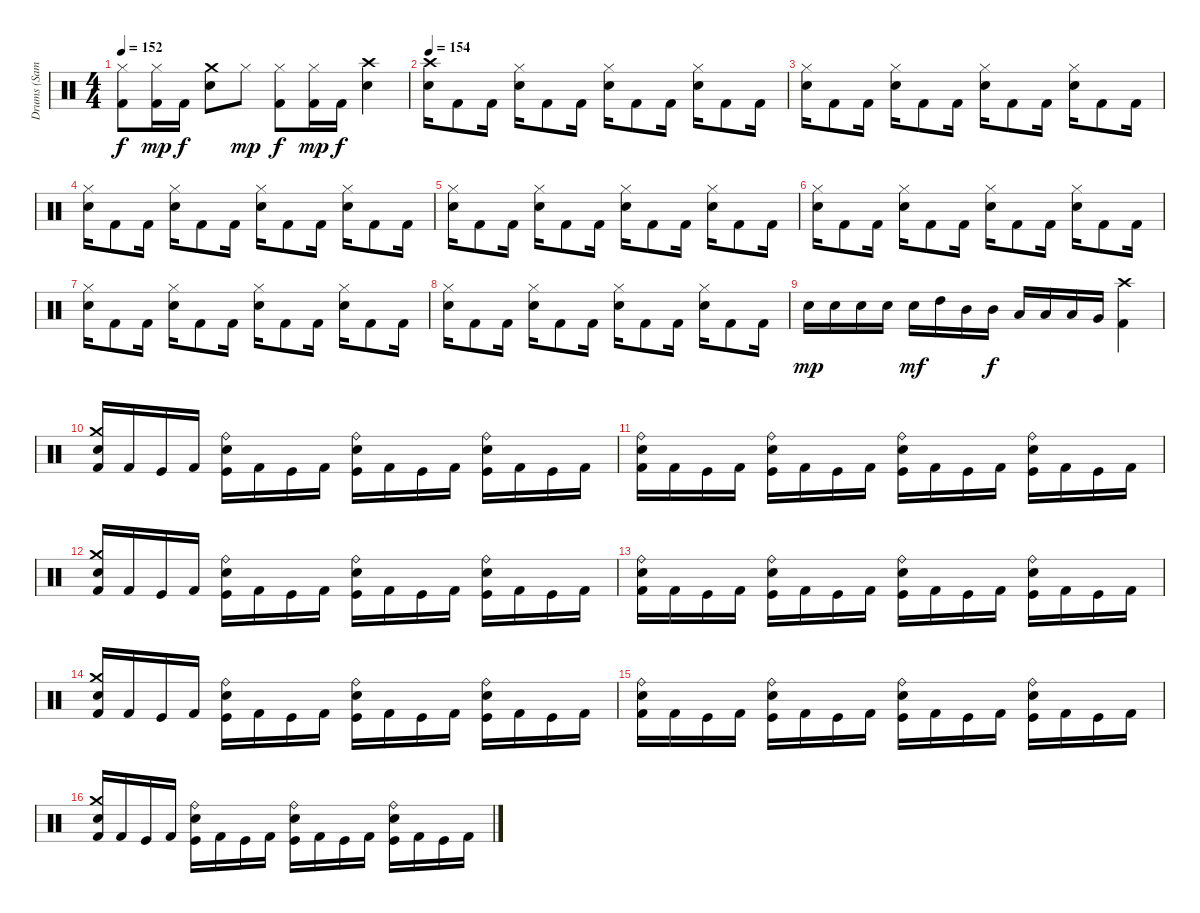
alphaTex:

\track ("Drums (Samuelson)" "Drums (Sam") {instrument percussion}
\staff
\articulation defaults
\ts (4 4)
\tempo 152
\clef neutral
\ks c
("Hi-Hat (closed)" "Kick (hit) 2").8{dy f} ("Hi-Hat (closed)" "Kick (hit) 2").16{dy mp} "Kick (hit) 2".16{dy f} ("Crash medium (hit)" "Electric Snare (hit)").8 "Hi-Hat (closed)".8{dy mp} ("Hi-Hat (closed)" "Kick (hit) 2").8{dy f} ("Hi-Hat (closed)" "Kick (hit) 2").16{dy mp} "Kick (hit) 2".16{dy f} ("Crash high (hit)" "Electric Snare (hit)").4 |
\tempo 152
\tempo 154
("Crash high (hit)" "Electric Snare (hit)").16 "Kick (hit) 2".8 "Kick (hit) 2".16 ("Hi-Hat (closed)" "Electric Snare (hit)").16 "Kick (hit) 2".8 "Kick (hit) 2".16 ("Hi-Hat (closed)" "Electric Snare (hit)").16 "Kick (hit) 2".8 "Kick (hit) 2".16 ("Hi-Hat (closed)" "Electric Snare (hit)").16 "Kick (hit) 2".8 "Kick (hit) 2".16 |
("Hi-Hat (closed)" "Electric Snare (hit)").16 "Kick (hit) 2".8 "Kick (hit) 2".16 ("Hi-Hat (closed)" "Electric Snare (hit)").16 "Kick (hit) 2".8 "Kick (hit) 2".16 ("Hi-Hat (closed)" "Electric Snare (hit)").16 "Kick (hit) 2".8 "Kick (hit) 2".16 ("Hi-Hat (closed)" "Electric Snare (hit)").16 "Kick (hit) 2".8 "Kick (hit) 2".16 |
("Hi-Hat (closed)" "Electric Snare (hit)").16 "Kick (hit) 2".8 "Kick (hit) 2".16 ("Hi-Hat (closed)" "Electric Snare (hit)").16 "Kick (hit) 2".8 "Kick (hit) 2".16 ("Hi-Hat (closed)" "Electric Snare (hit)").16 "Kick (hit) 2".8 "Kick (hit) 2".16 ("Hi-Hat (closed)" "Electric Snare (hit)").16 "Kick (hit) 2".8 "Kick (hit) 2".16 |
("Hi-Hat (closed)" "Electric Snare (hit)").16 "Kick (hit) 2".8 "Kick (hit) 2".16 ("Hi-Hat (closed)" "Electric Snare (hit)").16 "Kick (hit) 2".8 "Kick (hit) 2".16 ("Hi-Hat (closed)" "Electric Snare (hit)").16 "Kick (hit) 2".8 "Kick (hit) 2".16 ("Hi-Hat (closed)" "Electric Snare (hit)").16 "Kick (hit) 2".8 "Kick (hit) 2".16 |
("Hi-Hat (closed)" "Electric Snare (hit)").16 "Kick (hit) 2".8 "Kick (hit) 2".16 ("Hi-Hat (closed)" "Electric Snare (hit)").16 "Kick (hit) 2".8 "Kick (hit) 2".16 ("Hi-Hat (closed)" "Electric Snare (hit)").16 "Kick (hit) 2".8 "Kick (hit) 2".16 ("Hi-Hat (closed)" "Electric Snare (hit)").16 "Kick (hit) 2".8 "Kick (hit) 2".16 |
("Hi-Hat (closed)" "Electric Snare (hit)").16 "Kick (hit) 2".8 "Kick (hit) 2".16 ("Hi-Hat (closed)" "Electric Snare (hit)").16 "Kick (hit) 2".8 "Kick (hit) 2".16 ("Hi-Hat (closed)" "Electric Snare (hit)").16 "Kick (hit) 2".8 "Kick (hit) 2".16 ("Hi-Hat (closed)" "Electric Snare (hit)").16 "Kick (hit) 2".8 "Kick (hit) 2".16 |
("Hi-Hat (closed)" "Electric Snare (hit)").16 "Kick (hit) 2".8 "Kick (hit) 2".16 ("Hi-Hat (closed)" "Electric Snare (hit)").16 "Kick (hit) 2".8 "Kick (hit) 2".16 ("Hi-Hat (closed)" "Electric Snare (hit)").16 "Kick (hit) 2".8 "Kick (hit) 2".16 ("Hi-Hat (closed)" "Electric Snare (hit)").16 "Kick (hit) 2".8 "Kick (hit) 2".16 |
"Electric Snare (hit)".16{dy mp} "Electric Snare (hit)".16 "Electric Snare (hit)".16 "Electric Snare (hit)".16 "Electric Snare (hit)".16{dy mf} "High Tom (hit)".16 "Mid Tom (hit)".16 "Mid Tom (hit)".16{dy f} "Low Tom (hit)".16 "Low Tom (hit)".16 "Low Tom (hit)".16 "Very Low Tom (hit)".16 ("Crash high (hit)" "Kick (hit) 2").4 |
("Crash medium (hit)" "Electric Snare (hit)" "Kick (hit) 2").16 "Kick (hit) 2".16 "Kick (hit)".16 "Kick (hit) 2".16 ("Ride (bell)" "Electric Snare (hit)" "Kick (hit)").16 "Kick (hit) 2".16 "Kick (hit)".16 "Kick (hit) 2".16 ("Ride (bell)" "Electric Snare (hit)" "Kick (hit)").16 "Kick (hit) 2".16 "Kick (hit)".16 "Kick (hit) 2".16 ("Ride (bell)" "Electric Snare (hit)" "Kick (hit)").16 "Kick (hit) 2".16 "Kick (hit)".16 "Kick (hit) 2".16 |
("Ride (bell)" "Electric Snare (hit)" "Kick (hit) 2").16 "Kick (hit) 2".16 "Kick (hit)".16 "Kick (hit) 2".16 ("Ride (bell)" "Electric Snare (hit)" "Kick (hit)").16 "Kick (hit) 2".16 "Kick (hit)".16 "Kick (hit) 2".16 ("Ride (bell)" "Electric Snare (hit)" "Kick (hit)").16 "Kick (hit) 2".16 "Kick (hit)".16 "Kick (hit) 2".16 ("Ride (bell)" "Electric Snare (hit)" "Kick (hit)").16 "Kick (hit) 2".16 "Kick (hit)".16 "Kick (hit) 2".16 |
("Crash medium (hit)" "Electric Snare (hit)" "Kick (hit) 2").16 "Kick (hit) 2".16 "Kick (hit)".16 "Kick (hit) 2".16 ("Ride (bell)" "Electric Snare (hit)" "Kick (hit)").16 "Kick (hit) 2".16 "Kick (hit)".16 "Kick (hit) 2".16 ("Ride (bell)" "Electric Snare (hit)" "Kick (hit)").16 "Kick (hit) 2".16 "Kick (hit)".16 "Kick (hit) 2".16 ("Ride (bell)" "Electric Snare (hit)" "Kick (hit)").16 "Kick (hit) 2".16 "Kick (hit)".16 "Kick (hit) 2".16 |
("Ride (bell)" "Electric Snare (hit)" "Kick (hit) 2").16 "Kick (hit) 2".16 "Kick (hit)".16 "Kick (hit) 2".16 ("Ride (bell)" "Electric Snare (hit)" "Kick (hit)").16 "Kick (hit) 2".16 "Kick (hit)".16 "Kick (hit) 2".16 ("Ride (bell)" "Electric Snare (hit)" "Kick (hit)").16 "Kick (hit) 2".16 "Kick (hit)".16 "Kick (hit) 2".16 ("Ride (bell)" "Electric Snare (hit)" "Kick (hit)").16 "Kick (hit) 2".16 "Kick (hit)".16 "Kick (hit) 2".16 |
("Crash medium (hit)" "Electric Snare (hit)" "Kick (hit) 2").16 "Kick (hit) 2".16 "Kick (hit)".16 "Kick (hit) 2".16 ("Ride (bell)" "Electric Snare (hit)" "Kick (hit)").16 "Kick (hit) 2".16 "Kick (hit)".16 "Kick (hit) 2".16 ("Ride (bell)" "Electric Snare (hit)" "Kick (hit)").16 "Kick (hit) 2".16 "Kick (hit)".16 "Kick (hit) 2".16 ("Ride (bell)" "Electric Snare (hit)" "Kick (hit)").16 "Kick (hit) 2".16 "Kick (hit)".16 "Kick (hit) 2".16 |
("Ride (bell)" "Electric Snare (hit)" "Kick (hit) 2").16 "Kick (hit) 2".16 "Kick (hit)".16 "Kick (hit) 2".16 ("Ride (bell)" "Electric Snare (hit)" "Kick (hit)").16 "Kick (hit) 2".16 "Kick (hit)".16 "Kick (hit) 2".16 ("Ride (bell)" "Electric Snare (hit)" "Kick (hit)").16 "Kick (hit) 2".16 "Kick (hit)".16 "Kick (hit) 2".16 ("Ride (bell)" "Electric Snare (hit)" "Kick (hit)").16 "Kick (hit) 2".16 "Kick (hit)".16 "Kick (hit) 2".16 |
("Crash medium (hit)" "Electric Snare (hit)" "Kick (hit) 2").16 "Kick (hit) 2".16 "Kick (hit)".16 "Kick (hit) 2".16 ("Ride (bell)" "Electric Snare (hit)" "Kick (hit)").16 "Kick (hit) 2".16 "Kick (hit)".16 "Kick (hit) 2".16 ("Ride (bell)" "Electric Snare (hit)" "Kick (hit)").16 "Kick (hit) 2".16 "Kick (hit)".16 "Kick (hit) 2".16 ("Ride (bell)" "Electric Snare (hit)" "Kick (hit)").16 "Kick (hit) 2".16 "Kick (hit)".16 "Kick (hit) 2".16
